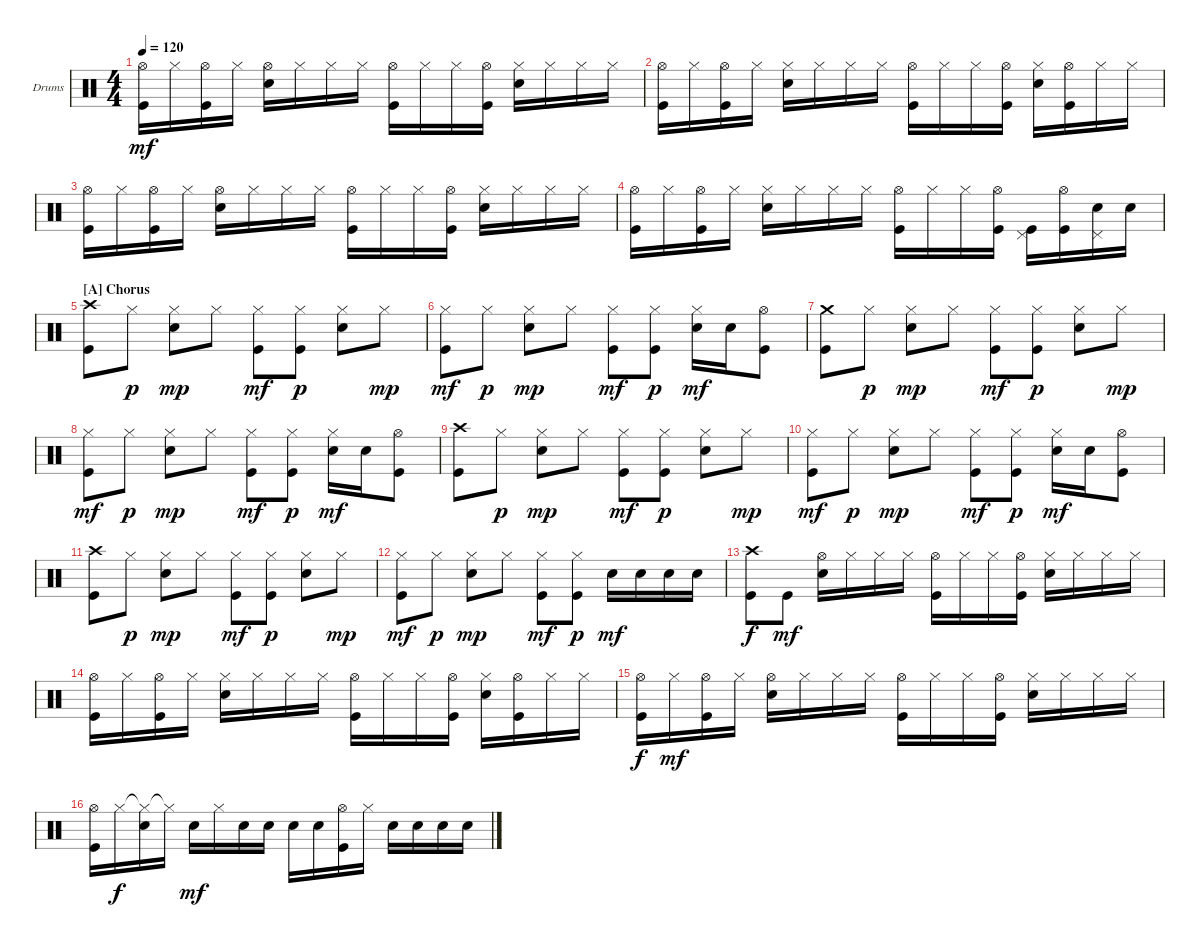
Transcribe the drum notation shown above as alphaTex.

\defaultSystemsLayout 4
\bracketExtendMode groupsimilarinstruments
\firstSystemTrackNameOrientation horizontal
\otherSystemsTrackNameOrientation horizontal
\track ("Drumkit" "Drums") {instrument percussion}
\staff {score}
\articulation defaults
\ts (4 4)
\tempo 120
\clef neutral
\scale
0.333333
\ks c
("Hi-Hat (open)" "Kick (hit)").16{dy mf} "Hi-Hat (closed)".16 ("Hi-Hat (open)" "Kick (hit)").16 "Hi-Hat (closed)".16 ("Hi-Hat (open)" "Snare (hit) 2").16 "Hi-Hat (closed)".16 "Hi-Hat (closed)".16 "Hi-Hat (closed)".16 ("Hi-Hat (open)" "Kick (hit)").16 "Hi-Hat (closed)".16 "Hi-Hat (closed)".16 ("Hi-Hat (open)" "Kick (hit)").16 ("Hi-Hat (closed)" "Snare (hit) 2").16 "Hi-Hat (closed)".16 "Hi-Hat (closed)".16 "Hi-Hat (closed)".16 |
\scale
0.333333 ("Hi-Hat (open)" "Kick (hit)").16 "Hi-Hat (closed)".16 ("Hi-Hat (open)" "Kick (hit)").16 "Hi-Hat (closed)".16 ("Hi-Hat (closed)" "Snare (hit) 2").16 "Hi-Hat (closed)".16 "Hi-Hat (closed)".16 "Hi-Hat (closed)".16 ("Hi-Hat (open)" "Kick (hit)").16 "Hi-Hat (closed)".16 "Hi-Hat (closed)".16 ("Hi-Hat (open)" "Kick (hit)").16 ("Hi-Hat (closed)" "Snare (hit) 2").16 ("Hi-Hat (open)" "Kick (hit)").16 "Hi-Hat (closed)".16 "Hi-Hat (closed)".16 |
\scale
0.333333 ("Hi-Hat (open)" "Kick (hit)").16 "Hi-Hat (closed)".16 ("Hi-Hat (open)" "Kick (hit)").16 "Hi-Hat (closed)".16 ("Hi-Hat (open)" "Snare (hit) 2").16 "Hi-Hat (closed)".16 "Hi-Hat (closed)".16 "Hi-Hat (closed)".16 ("Hi-Hat (open)" "Kick (hit)").16 "Hi-Hat (closed)".16 "Hi-Hat (closed)".16 ("Hi-Hat (open)" "Kick (hit)").16 ("Hi-Hat (closed)" "Snare (hit) 2").16 "Hi-Hat (closed)".16 "Hi-Hat (closed)".16 "Hi-Hat (closed)".16 |
\scale
0.333333 ("Hi-Hat (open)" "Kick (hit)").16 "Hi-Hat (closed)".16 ("Hi-Hat (open)" "Kick (hit)").16 "Hi-Hat (closed)".16 ("Hi-Hat (closed)" "Snare (hit) 2").16 "Hi-Hat (closed)".16 "Hi-Hat (closed)".16 "Hi-Hat (closed)".16 ("Hi-Hat (open)" "Kick (hit)").16 "Hi-Hat (closed)".16 "Hi-Hat (closed)".16 ("Hi-Hat (open)" "Kick (hit)").16 ("Pedal Hi-Hat (hit)" "Kick (hit)").16 ("Hi-Hat (open)" "Kick (hit)").16 ("Pedal Hi-Hat (hit)" "Snare (hit) 2").16 "Snare (hit) 2".16 |
\section ("A" "Chorus")
\scale
0.333333 ("Crash high (hit)" "Kick (hit)").8 "Hi-Hat (closed)".8{dy p} ("Hi-Hat (closed)" "Snare (hit) 2").8{dy mp} "Hi-Hat (closed)".8 ("Hi-Hat (closed)" "Kick (hit)").8{dy mf} ("Hi-Hat (closed)" "Kick (hit)").8{dy p} ("Hi-Hat (closed)" "Snare (hit) 2").8 "Hi-Hat (closed)".8{dy mp} |
\scale
0.333333 ("Hi-Hat (closed)" "Kick (hit)").8{dy mf} "Hi-Hat (closed)".8{dy p} ("Hi-Hat (closed)" "Snare (hit) 2").8{dy mp} "Hi-Hat (closed)".8 ("Hi-Hat (closed)" "Kick (hit)").8{dy mf} ("Hi-Hat (closed)" "Kick (hit)").8{dy p} ("Hi-Hat (closed)" "Snare (hit) 2").16{dy mf} "Snare (hit) 2".16 ("Hi-Hat (open)" "Kick (hit)").8 |
\scale
0.333333 ("Crash medium (hit)" "Kick (hit)").8 "Hi-Hat (closed)".8{dy p} ("Hi-Hat (closed)" "Snare (hit) 2").8{dy mp} "Hi-Hat (closed)".8 ("Hi-Hat (closed)" "Kick (hit)").8{dy mf} ("Hi-Hat (closed)" "Kick (hit)").8{dy p} ("Hi-Hat (closed)" "Snare (hit) 2").8 "Hi-Hat (closed)".8{dy mp} |
\scale
0.333333 ("Hi-Hat (closed)" "Kick (hit)").8{dy mf} "Hi-Hat (closed)".8{dy p} ("Hi-Hat (closed)" "Snare (hit) 2").8{dy mp} "Hi-Hat (closed)".8 ("Hi-Hat (closed)" "Kick (hit)").8{dy mf} ("Hi-Hat (closed)" "Kick (hit)").8{dy p} ("Hi-Hat (closed)" "Snare (hit) 2").16{dy mf} "Snare (hit) 2".16 ("Hi-Hat (open)" "Kick (hit)").8 |
\scale
0.333333 ("Crash high (hit)" "Kick (hit)").8 "Hi-Hat (closed)".8{dy p} ("Hi-Hat (closed)" "Snare (hit) 2").8{dy mp} "Hi-Hat (closed)".8 ("Hi-Hat (closed)" "Kick (hit)").8{dy mf} ("Hi-Hat (closed)" "Kick (hit)").8{dy p} ("Hi-Hat (closed)" "Snare (hit) 2").8 "Hi-Hat (closed)".8{dy mp} |
\scale
0.333333 ("Hi-Hat (closed)" "Kick (hit)").8{dy mf} "Hi-Hat (closed)".8{dy p} ("Hi-Hat (closed)" "Snare (hit) 2").8{dy mp} "Hi-Hat (closed)".8 ("Hi-Hat (closed)" "Kick (hit)").8{dy mf} ("Hi-Hat (closed)" "Kick (hit)").8{dy p} ("Hi-Hat (closed)" "Snare (hit) 2").16{dy mf} "Snare (hit) 2".16 ("Hi-Hat (open)" "Kick (hit)").8 |
\scale
0.333333 ("Crash high (hit)" "Kick (hit)").8 "Hi-Hat (closed)".8{dy p} ("Hi-Hat (closed)" "Snare (hit) 2").8{dy mp} "Hi-Hat (closed)".8 ("Hi-Hat (closed)" "Kick (hit)").8{dy mf} ("Hi-Hat (closed)" "Kick (hit)").8{dy p} ("Hi-Hat (closed)" "Snare (hit) 2").8 "Hi-Hat (closed)".8{dy mp} |
\scale
0.333333 ("Hi-Hat (closed)" "Kick (hit)").8{dy mf} "Hi-Hat (closed)".8{dy p} ("Hi-Hat (closed)" "Snare (hit) 2").8{dy mp} "Hi-Hat (closed)".8 ("Hi-Hat (closed)" "Kick (hit)").8{dy mf} ("Hi-Hat (closed)" "Kick (hit)").8{dy p} "Snare (hit) 2".16{dy mf} "Snare (hit) 2".16 "Snare (hit) 2".16 "Snare (hit) 2".16 |
\scale
0.333333 ("Crash high (hit)" "Kick (hit)").8{dy f} "Kick (hit)".8{dy mf} ("Hi-Hat (open)" "Snare (hit) 2").16 "Hi-Hat (closed)".16 "Hi-Hat (closed)".16 "Hi-Hat (closed)".16 ("Hi-Hat (open)" "Kick (hit)").16 "Hi-Hat (closed)".16 "Hi-Hat (closed)".16 ("Hi-Hat (open)" "Kick (hit)").16 ("Hi-Hat (closed)" "Snare (hit) 2").16 "Hi-Hat (closed)".16 "Hi-Hat (closed)".16 "Hi-Hat (closed)".16 |
\scale
0.333333 ("Hi-Hat (open)" "Kick (hit)").16 "Hi-Hat (closed)".16 ("Hi-Hat (open)" "Kick (hit)").16 "Hi-Hat (closed)".16 ("Hi-Hat (closed)" "Snare (hit) 2").16 "Hi-Hat (closed)".16 "Hi-Hat (closed)".16 "Hi-Hat (closed)".16 ("Hi-Hat (open)" "Kick (hit)").16 "Hi-Hat (closed)".16 "Hi-Hat (closed)".16 ("Hi-Hat (open)" "Kick (hit)").16 ("Hi-Hat (closed)" "Snare (hit) 2").16 ("Hi-Hat (open)" "Kick (hit)").16 "Hi-Hat (closed)".16 "Hi-Hat (closed)".16 |
\scale
0.333333 ("Hi-Hat (open)" "Kick (hit)").16{dy f} "Hi-Hat (closed)".16{dy mf} ("Hi-Hat (open)" "Kick (hit)").16 "Hi-Hat (closed)".16 ("Hi-Hat (open)" "Snare (hit) 2").16 "Hi-Hat (closed)".16 "Hi-Hat (closed)".16 "Hi-Hat (closed)".16 ("Hi-Hat (open)" "Kick (hit)").16 "Hi-Hat (closed)".16 "Hi-Hat (closed)".16 ("Hi-Hat (open)" "Kick (hit)").16 ("Hi-Hat (closed)" "Snare (hit) 2").16 "Hi-Hat (closed)".16 "Hi-Hat (closed)".16 "Hi-Hat (closed)".16 |
\scale
0.333333 ("Hi-Hat (open)" "Kick (hit)").16 "Hi-Hat (closed)".16{dy f} ("Hi-Hat (closed)"{t} "Snare (hit) 2").16 "Hi-Hat (closed)"{t}.16 "Snare (hit) 2".16{dy mf} "Hi-Hat (closed)".16 "Snare (hit) 2".16 "Snare (hit) 2".16 "Snare (hit) 2".16 "Snare (hit) 2".16 ("Hi-Hat (open)" "Kick (hit)").16 "Hi-Hat (closed)".16 "Snare (hit) 2".16 "Snare (hit) 2".16 "Snare (hit) 2".16 "Snare (hit) 2".16
